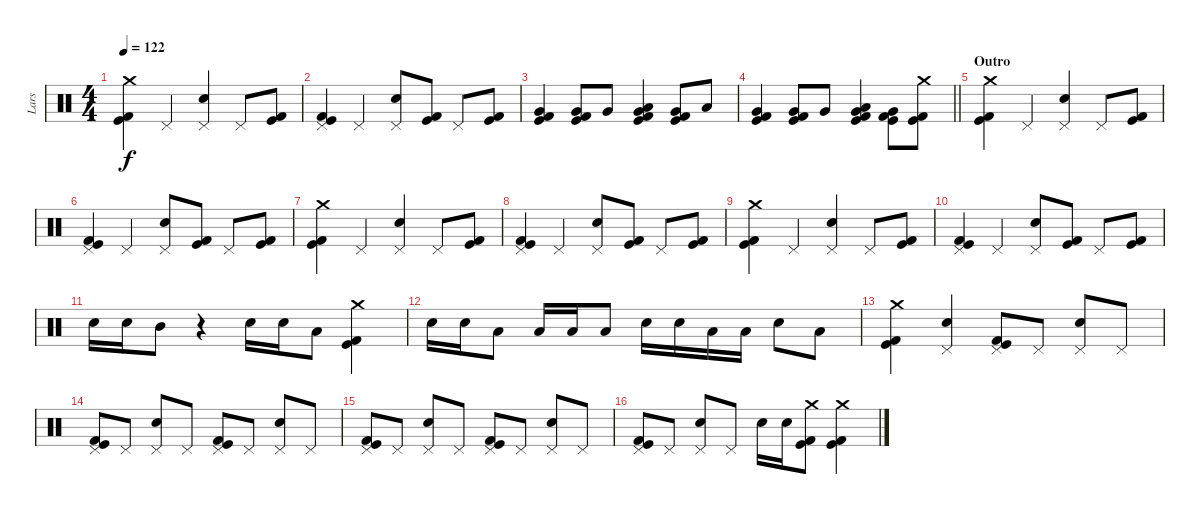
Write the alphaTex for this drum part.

\track ("Lars" "Lars") {instrument percussion}
\staff {score}
\articulation defaults
\ts (4 4)
\tempo 122
\clef neutral
\ks c
("Crash medium (hit)" "Kick (hit)" "Kick (hit) 2").4{dy f} "Pedal Hi-Hat (hit)".4 ("Pedal Hi-Hat (hit)" "Electric Snare (hit)").4 "Pedal Hi-Hat (hit)".8 ("Kick (hit)" "Kick (hit) 2").8 |
("Pedal Hi-Hat (hit)" "Kick (hit)" "Kick (hit) 2").4 "Pedal Hi-Hat (hit)".4 ("Pedal Hi-Hat (hit)" "Electric Snare (hit)").8 ("Kick (hit)" "Kick (hit) 2").8 "Pedal Hi-Hat (hit)".8 ("Kick (hit)" "Kick (hit) 2").8 |
("Very Low Tom (hit)" "Kick (hit)" "Kick (hit) 2").4 ("Very Low Tom (hit)" "Kick (hit)" "Kick (hit) 2").8 "Very Low Tom (hit)".8 ("Very Low Tom (hit)" "Kick (hit)" "Kick (hit) 2" "Low Tom (hit)").4 ("Very Low Tom (hit)" "Kick (hit)" "Kick (hit) 2").8 "Low Tom (hit)".8 |
\barLineRight lightlight
("Very Low Tom (hit)" "Kick (hit)" "Kick (hit) 2").4 ("Very Low Tom (hit)" "Kick (hit)" "Kick (hit) 2").8 "Very Low Tom (hit)".8 ("Very Low Tom (hit)" "Kick (hit)" "Kick (hit) 2" "Low Tom (hit)").4 ("Very Low Tom (hit)" "Kick (hit)" "Kick (hit) 2").8 ("Crash medium (hit)" "Kick (hit)" "Kick (hit) 2").8 |
\section ("" "Outro")
("Crash medium (hit)" "Kick (hit)" "Kick (hit) 2").4 "Pedal Hi-Hat (hit)".4 ("Pedal Hi-Hat (hit)" "Electric Snare (hit)").4 "Pedal Hi-Hat (hit)".8 ("Kick (hit)" "Kick (hit) 2").8 |
("Pedal Hi-Hat (hit)" "Kick (hit)" "Kick (hit) 2").4 "Pedal Hi-Hat (hit)".4 ("Pedal Hi-Hat (hit)" "Electric Snare (hit)").8 ("Kick (hit)" "Kick (hit) 2").8 "Pedal Hi-Hat (hit)".8 ("Kick (hit)" "Kick (hit) 2").8 |
("Crash medium (hit)" "Kick (hit)" "Kick (hit) 2").4 "Pedal Hi-Hat (hit)".4 ("Pedal Hi-Hat (hit)" "Electric Snare (hit)").4 "Pedal Hi-Hat (hit)".8 ("Kick (hit)" "Kick (hit) 2").8 |
("Pedal Hi-Hat (hit)" "Kick (hit)" "Kick (hit) 2").4 "Pedal Hi-Hat (hit)".4 ("Pedal Hi-Hat (hit)" "Electric Snare (hit)").8 ("Kick (hit)" "Kick (hit) 2").8 "Pedal Hi-Hat (hit)".8 ("Kick (hit)" "Kick (hit) 2").8 |
("Crash medium (hit)" "Kick (hit)" "Kick (hit) 2").4 "Pedal Hi-Hat (hit)".4 ("Pedal Hi-Hat (hit)" "Electric Snare (hit)").4 "Pedal Hi-Hat (hit)".8 ("Kick (hit)" "Kick (hit) 2").8 |
("Pedal Hi-Hat (hit)" "Kick (hit)" "Kick (hit) 2").4 "Pedal Hi-Hat (hit)".4 ("Pedal Hi-Hat (hit)" "Electric Snare (hit)").8 ("Kick (hit)" "Kick (hit) 2").8 "Pedal Hi-Hat (hit)".8 ("Kick (hit)" "Kick (hit) 2").8 |
"Electric Snare (hit)".16 "Electric Snare (hit)".16 "Mid Tom (hit)".8 r.4 "Electric Snare (hit)".16 "Electric Snare (hit)".16 "Low Tom (hit)".8 ("Crash medium (hit)" "Kick (hit)" "Kick (hit) 2").4 |
"Electric Snare (hit)".16 "Electric Snare (hit)".16 "Low Tom (hit)".8 "Low Tom (hit)".16 "Low Tom (hit)".16 "Low Tom (hit)".8 "Electric Snare (hit)".16 "Electric Snare (hit)".16 "Low Tom (hit)".16 "Low Tom (hit)".16 "Electric Snare (hit)".8 "Low Tom (hit)".8 |
("Crash medium (hit)" "Kick (hit)" "Kick (hit) 2").4 ("Pedal Hi-Hat (hit)" "Electric Snare (hit)").4 ("Pedal Hi-Hat (hit)" "Kick (hit)" "Kick (hit) 2").8 "Pedal Hi-Hat (hit)".8 ("Pedal Hi-Hat (hit)" "Electric Snare (hit)").8 "Pedal Hi-Hat (hit)".8 |
("Pedal Hi-Hat (hit)" "Kick (hit)" "Kick (hit) 2").8 "Pedal Hi-Hat (hit)".8 ("Pedal Hi-Hat (hit)" "Electric Snare (hit)").8 "Pedal Hi-Hat (hit)".8 ("Pedal Hi-Hat (hit)" "Kick (hit)" "Kick (hit) 2").8 "Pedal Hi-Hat (hit)".8 ("Pedal Hi-Hat (hit)" "Electric Snare (hit)").8 "Pedal Hi-Hat (hit)".8 |
("Pedal Hi-Hat (hit)" "Kick (hit)" "Kick (hit) 2").8 "Pedal Hi-Hat (hit)".8 ("Pedal Hi-Hat (hit)" "Electric Snare (hit)").8 "Pedal Hi-Hat (hit)".8 ("Pedal Hi-Hat (hit)" "Kick (hit)" "Kick (hit) 2").8 "Pedal Hi-Hat (hit)".8 ("Pedal Hi-Hat (hit)" "Electric Snare (hit)").8 "Pedal Hi-Hat (hit)".8 |
("Pedal Hi-Hat (hit)" "Kick (hit)" "Kick (hit) 2").8 "Pedal Hi-Hat (hit)".8 ("Pedal Hi-Hat (hit)" "Electric Snare (hit)").8 "Pedal Hi-Hat (hit)".8 "Electric Snare (hit)".16 "Electric Snare (hit)".16 ("Crash medium (hit)" "Kick (hit)" "Kick (hit) 2").8 ("Crash medium (hit)" "Kick (hit)" "Kick (hit) 2").4
